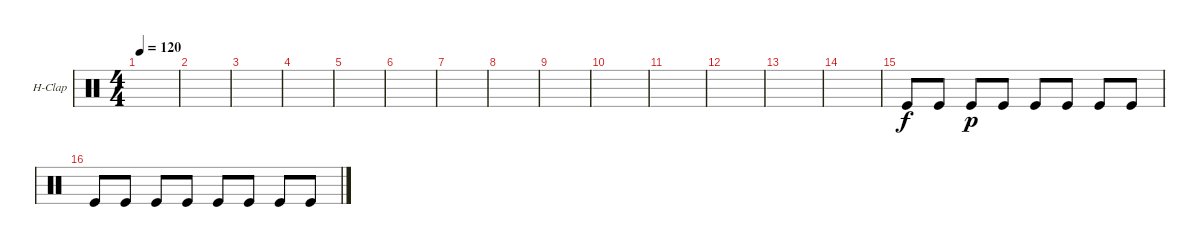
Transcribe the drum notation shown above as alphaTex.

\defaultSystemsLayout 4
\bracketExtendMode groupsimilarinstruments
\firstSystemTrackNameOrientation horizontal
\otherSystemsTrackNameOrientation horizontal
\track ("Hand Clap" "H-Clap") {instrument percussion}
\staff {score}
\articulation defaults
\ts (4 4)
\tempo 120
\clef neutral
\scale
0.333333
\ks c
|
\scale
0.333333 |
\scale
0.333333 |
\scale
0.333333 |
\scale
0.333333 |
\scale
0.333333 |
\scale
0.333333 |
\scale
0.333333 |
\scale
0.333333 |
\scale
0.333333 |
\scale
0.333333 |
\scale
0.333333 |
\scale
0.333333 |
\scale
0.333333 |
\scale
0.333333 "Kick (hit)".8 "Kick (hit)".8 "Kick (hit)".8{dy p} "Kick (hit)".8 "Kick (hit)".8 "Kick (hit)".8 "Kick (hit)".8 "Kick (hit)".8 |
\scale
0.333333 "Kick (hit)".8 "Kick (hit)".8 "Kick (hit)".8 "Kick (hit)".8 "Kick (hit)".8 "Kick (hit)".8 "Kick (hit)".8 "Kick (hit)".8
